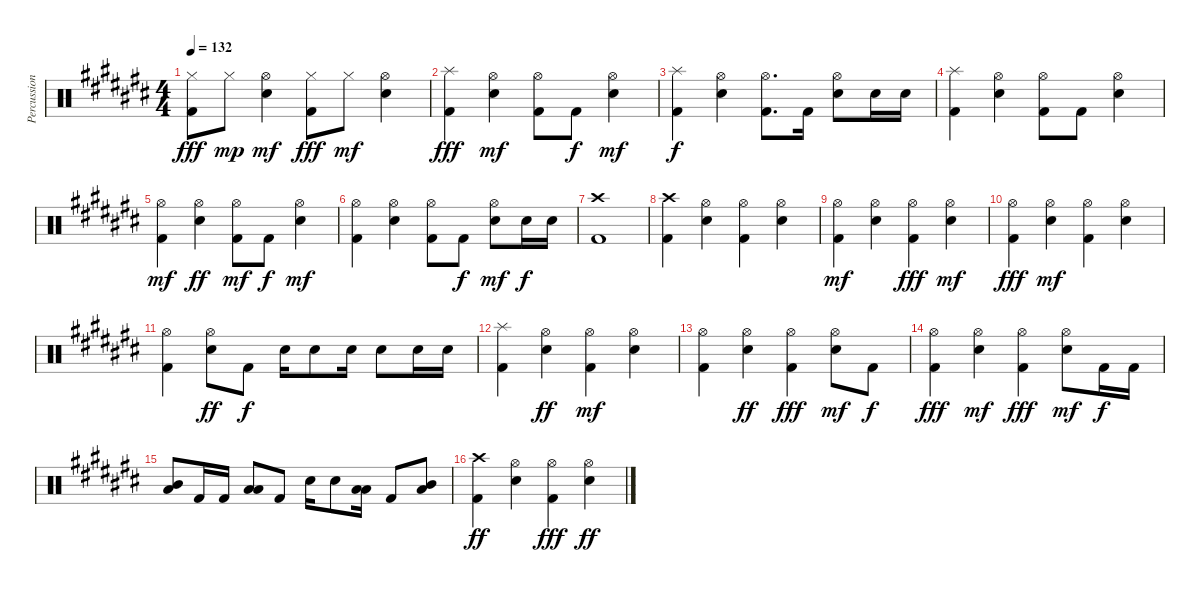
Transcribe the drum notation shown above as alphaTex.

\track ("Percussion" "Percussion") {instrument percussion}
\staff {score}
\articulation defaults
\ts (4 4)
\tempo 132
\clef neutral
\ks c#
("Hi-Hat (closed)" "Kick (hit) 2").8{dy fff} "Hi-Hat (closed)".8{dy mp} ("Hi-Hat (open)" "Snare (hit) 2").4{dy mf} ("Hi-Hat (closed)" "Kick (hit) 2").8{dy fff} "Hi-Hat (closed)".8{dy mf} ("Hi-Hat (open)" "Snare (hit) 2").4 |
("Splash (hit)" "Kick (hit) 2").4{dy fff} ("Hi-Hat (open)" "Snare (hit) 2").4{dy mf} ("Hi-Hat (open)" "Kick (hit) 2").8 "Kick (hit) 2".8{dy f} ("Hi-Hat (open)" "Snare (hit) 2").4{dy mf} |
("Splash (hit)" "Kick (hit) 2").4{dy f} ("Hi-Hat (open)" "Snare (hit) 2").4 ("Hi-Hat (open)" "Kick (hit) 2").8{d} "Kick (hit) 2".16 ("Hi-Hat (open)" "Snare (hit) 2").8 "Snare (hit) 2".16 "Snare (hit) 2".16 |
("Splash (hit)" "Kick (hit) 2").4 ("Hi-Hat (open)" "Snare (hit) 2").4 ("Hi-Hat (open)" "Kick (hit) 2").8 "Kick (hit) 2".8 ("Hi-Hat (open)" "Snare (hit) 2").4 |
("Hi-Hat (open)" "Kick (hit) 2").4{dy mf} ("Hi-Hat (open)" "Snare (hit) 2").4{dy ff} ("Hi-Hat (open)" "Kick (hit) 2").8{dy mf} "Kick (hit) 2".8{dy f} ("Hi-Hat (open)" "Snare (hit) 2").4{dy mf} |
("Hi-Hat (open)" "Kick (hit) 2").4 ("Hi-Hat (open)" "Snare (hit) 2").4 ("Hi-Hat (open)" "Kick (hit) 2").8 "Kick (hit) 2".8{dy f} ("Hi-Hat (open)" "Snare (hit) 2").8{dy mf} "Snare (hit) 2".16{dy f} "Snare (hit) 2".16 |
("Crash high (hit)" "Kick (hit) 2").1 |
("Crash high (hit)" "Kick (hit) 2").4 ("Hi-Hat (open)" "Snare (hit) 2").4 ("Hi-Hat (open)" "Kick (hit) 2").4 ("Hi-Hat (open)" "Snare (hit) 2").4 |
("Hi-Hat (open)" "Kick (hit) 2").4{dy mf} ("Hi-Hat (open)" "Snare (hit) 2").4 ("Hi-Hat (open)" "Kick (hit) 2").4{dy fff} ("Hi-Hat (open)" "Snare (hit) 2").4{dy mf} |
("Hi-Hat (open)" "Kick (hit) 2").4{dy fff} ("Hi-Hat (open)" "Snare (hit) 2").4{dy mf} ("Hi-Hat (open)" "Kick (hit) 2").4 ("Hi-Hat (open)" "Snare (hit) 2").4 |
("Hi-Hat (open)" "Kick (hit) 2").4 ("Hi-Hat (open)" "Snare (hit) 2").8{dy ff} "Kick (hit) 2".8{dy f} "Snare (hit) 2".16 "Snare (hit) 2".8 "Snare (hit) 2".16 "Snare (hit) 2".8 "Snare (hit) 2".16 "Snare (hit) 2".16 |
("Splash (hit)" "Kick (hit) 2").4 ("Hi-Hat (open)" "Snare (hit) 2").4{dy ff} ("Hi-Hat (open)" "Kick (hit) 2").4{dy mf} ("Hi-Hat (open)" "Snare (hit) 2").4 |
("Hi-Hat (open)" "Kick (hit) 2").4 ("Hi-Hat (open)" "Snare (hit) 2").4{dy ff} ("Hi-Hat (open)" "Kick (hit) 2").4{dy fff} ("Hi-Hat (open)" "Snare (hit) 2").8{dy mf} "Kick (hit) 2".8{dy f} |
("Hi-Hat (open)" "Kick (hit) 2").4{dy fff} ("Hi-Hat (open)" "Snare (hit) 2").4{dy mf} ("Hi-Hat (open)" "Kick (hit) 2").4{dy fff} ("Hi-Hat (open)" "Snare (hit) 2").8{dy mf} "Kick (hit) 2".16{dy f} "Kick (hit) 2".16 |
("Mid Tom (hit)" "Low Tom (hit)").8 "Kick (hit) 2".16 "Kick (hit) 2".16 ("Low Floor Tom (hit)" "Low Tom (hit)").8 "Kick (hit) 2".8 "Snare (hit) 2".16 "Snare (hit) 2".8 ("Low Floor Tom (hit)" "Low Tom (hit)").16 "Kick (hit) 2".8 ("Mid Tom (hit)" "Low Tom (hit)").8 |
("Crash high (hit)" "Kick (hit) 2").4{dy ff} ("Hi-Hat (open)" "Snare (hit) 2").4 ("Hi-Hat (open)" "Kick (hit) 2").4{dy fff} ("Hi-Hat (open)" "Snare (hit) 2").4{dy ff}
